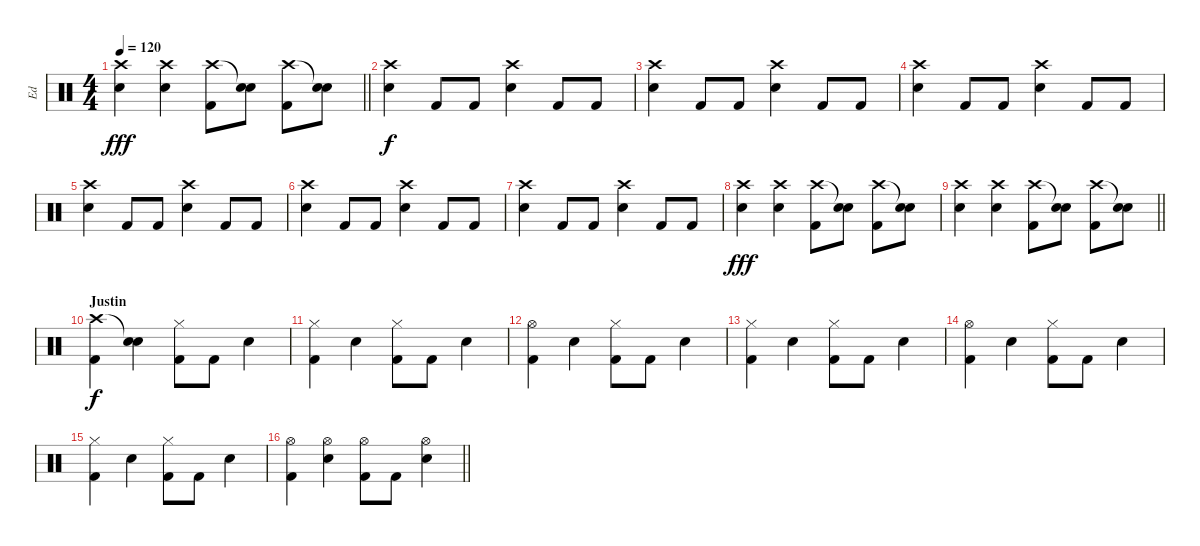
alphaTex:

\track ("Ed" "Ed") {instrument percussion}
\staff {score}
\articulation defaults
\ts (4 4)
\tempo 120
\clef neutral
\barLineRight lightlight
\ks c
("Crash high (hit)" "Snare (hit) 2").4{dy fff} ("Crash high (hit)" "Snare (hit) 2").4 ("Crash high (hit)" "Kick (hit) 2").8 ("Snare (hit)"{t} "Snare (hit) 2").8 ("Crash high (hit)" "Kick (hit) 2").8 ("Snare (hit)"{t} "Snare (hit) 2").8 |
("Crash high (hit)" "Snare (hit) 2").4{dy f} "Kick (hit) 2".8 "Kick (hit) 2".8 ("Crash high (hit)" "Snare (hit) 2").4 "Kick (hit) 2".8 "Kick (hit) 2".8 |
("Crash high (hit)" "Snare (hit) 2").4 "Kick (hit) 2".8 "Kick (hit) 2".8 ("Crash high (hit)" "Snare (hit) 2").4 "Kick (hit) 2".8 "Kick (hit) 2".8 |
("Crash high (hit)" "Snare (hit) 2").4 "Kick (hit) 2".8 "Kick (hit) 2".8 ("Crash high (hit)" "Snare (hit) 2").4 "Kick (hit) 2".8 "Kick (hit) 2".8 |
("Crash high (hit)" "Snare (hit) 2").4 "Kick (hit) 2".8 "Kick (hit) 2".8 ("Crash high (hit)" "Snare (hit) 2").4 "Kick (hit) 2".8 "Kick (hit) 2".8 |
("Crash high (hit)" "Snare (hit) 2").4 "Kick (hit) 2".8 "Kick (hit) 2".8 ("Crash high (hit)" "Snare (hit) 2").4 "Kick (hit) 2".8 "Kick (hit) 2".8 |
("Crash high (hit)" "Snare (hit) 2").4 "Kick (hit) 2".8 "Kick (hit) 2".8 ("Crash high (hit)" "Snare (hit) 2").4 "Kick (hit) 2".8 "Kick (hit) 2".8 |
("Crash high (hit)" "Snare (hit) 2").4{dy fff} ("Crash high (hit)" "Snare (hit) 2").4 ("Crash high (hit)" "Kick (hit) 2").8 ("Snare (hit)"{t} "Snare (hit) 2").8 ("Crash high (hit)" "Kick (hit) 2").8 ("Snare (hit)"{t} "Snare (hit) 2").8 |
\barLineRight lightlight
("Crash high (hit)" "Snare (hit) 2").4 ("Crash high (hit)" "Snare (hit) 2").4 ("Crash high (hit)" "Kick (hit) 2").8 ("Snare (hit)"{t} "Snare (hit) 2").8 ("Crash high (hit)" "Kick (hit) 2").8 ("Snare (hit)"{t} "Snare (hit) 2").8 |
\section ("" "Justin")
("Crash high (hit)" "Kick (hit) 2").4{dy f} ("Snare (hit)"{t} "Snare (hit) 2").4 ("Hi-Hat (closed)" "Kick (hit) 2").8 "Kick (hit) 2".8 "Snare (hit) 2".4 |
("Hi-Hat (closed)" "Kick (hit) 2").4 "Snare (hit) 2".4 ("Hi-Hat (closed)" "Kick (hit) 2").8 "Kick (hit) 2".8 "Snare (hit) 2".4 |
("Hi-Hat (open)" "Kick (hit) 2").4 "Snare (hit) 2".4 ("Hi-Hat (closed)" "Kick (hit) 2").8 "Kick (hit) 2".8 "Snare (hit) 2".4 |
("Hi-Hat (closed)" "Kick (hit) 2").4 "Snare (hit) 2".4 ("Hi-Hat (closed)" "Kick (hit) 2").8 "Kick (hit) 2".8 "Snare (hit) 2".4 |
("Hi-Hat (open)" "Kick (hit) 2").4 "Snare (hit) 2".4 ("Hi-Hat (closed)" "Kick (hit) 2").8 "Kick (hit) 2".8 "Snare (hit) 2".4 |
("Hi-Hat (closed)" "Kick (hit) 2").4 "Snare (hit) 2".4 ("Hi-Hat (closed)" "Kick (hit) 2").8 "Kick (hit) 2".8 "Snare (hit) 2".4 |
\barLineRight lightlight
("Hi-Hat (open)" "Kick (hit) 2").4 ("Hi-Hat (open)" "Snare (hit) 2").4 ("Hi-Hat (open)" "Kick (hit) 2").8 "Kick (hit) 2".8 ("Hi-Hat (open)" "Snare (hit) 2").4
